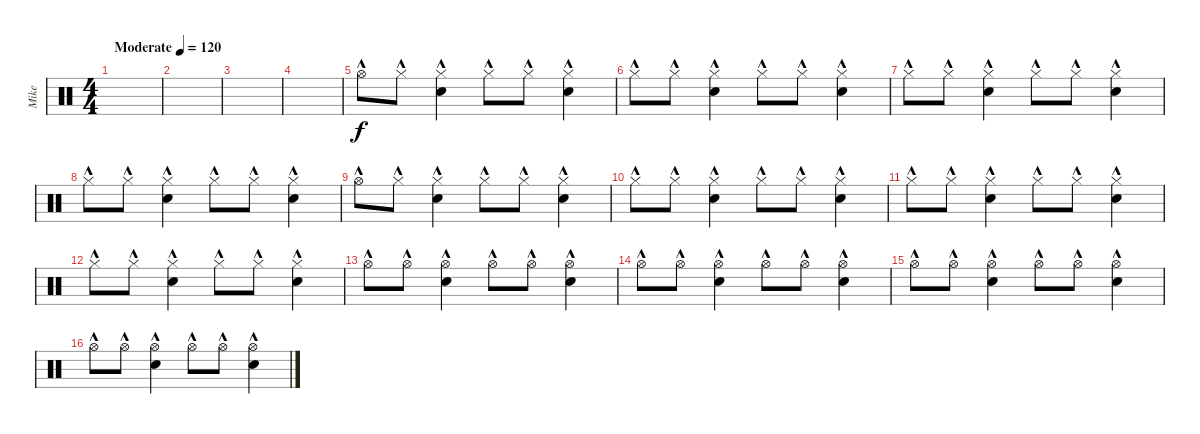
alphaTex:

\track ("Mike" "Mike") {instrument percussion}
\staff {score}
\articulation defaults
\ts (4 4)
\tempo (120 "Moderate")
\clef neutral
\ks c
|
|
|
|
"Hi-Hat (open)"{hac}.8 "Hi-Hat (closed)"{hac}.8 ("Hi-Hat (closed)"{hac} "Electric Snare (hit)"{hac}).4 "Hi-Hat (closed)"{hac}.8 "Hi-Hat (closed)"{hac}.8 ("Hi-Hat (closed)"{hac} "Electric Snare (hit)"{hac}).4 |
"Hi-Hat (closed)"{hac}.8 "Hi-Hat (closed)"{hac}.8 ("Hi-Hat (closed)"{hac} "Electric Snare (hit)"{hac}).4 "Hi-Hat (closed)"{hac}.8 "Hi-Hat (closed)"{hac}.8 ("Hi-Hat (closed)"{hac} "Electric Snare (hit)"{hac}).4 |
"Hi-Hat (closed)"{hac}.8 "Hi-Hat (closed)"{hac}.8 ("Hi-Hat (closed)"{hac} "Electric Snare (hit)"{hac}).4 "Hi-Hat (closed)"{hac}.8 "Hi-Hat (closed)"{hac}.8 ("Hi-Hat (closed)"{hac} "Electric Snare (hit)"{hac}).4 |
"Hi-Hat (closed)"{hac}.8 "Hi-Hat (closed)"{hac}.8 ("Hi-Hat (closed)"{hac} "Electric Snare (hit)"{hac}).4 "Hi-Hat (closed)"{hac}.8 "Hi-Hat (closed)"{hac}.8 ("Hi-Hat (closed)"{hac} "Electric Snare (hit)"{hac}).4 |
"Hi-Hat (open)"{hac}.8 "Hi-Hat (closed)"{hac}.8 ("Hi-Hat (closed)"{hac} "Electric Snare (hit)"{hac}).4 "Hi-Hat (closed)"{hac}.8 "Hi-Hat (closed)"{hac}.8 ("Hi-Hat (closed)"{hac} "Electric Snare (hit)"{hac}).4 |
"Hi-Hat (closed)"{hac}.8 "Hi-Hat (closed)"{hac}.8 ("Hi-Hat (closed)"{hac} "Electric Snare (hit)"{hac}).4 "Hi-Hat (closed)"{hac}.8 "Hi-Hat (closed)"{hac}.8 ("Hi-Hat (closed)"{hac} "Electric Snare (hit)"{hac}).4 |
"Hi-Hat (closed)"{hac}.8 "Hi-Hat (closed)"{hac}.8 ("Hi-Hat (closed)"{hac} "Electric Snare (hit)"{hac}).4 "Hi-Hat (closed)"{hac}.8 "Hi-Hat (closed)"{hac}.8 ("Hi-Hat (closed)"{hac} "Electric Snare (hit)"{hac}).4 |
"Hi-Hat (closed)"{hac}.8 "Hi-Hat (closed)"{hac}.8 ("Hi-Hat (closed)"{hac} "Electric Snare (hit)"{hac}).4 "Hi-Hat (closed)"{hac}.8 "Hi-Hat (closed)"{hac}.8 ("Hi-Hat (closed)"{hac} "Electric Snare (hit)"{hac}).4 |
"Hi-Hat (open)"{hac}.8 "Hi-Hat (open)"{hac}.8 ("Hi-Hat (open)"{hac} "Electric Snare (hit)"{hac}).4 "Hi-Hat (open)"{hac}.8 "Hi-Hat (open)"{hac}.8 ("Hi-Hat (open)"{hac} "Electric Snare (hit)"{hac}).4 |
"Hi-Hat (open)"{hac}.8 "Hi-Hat (open)"{hac}.8 ("Hi-Hat (open)"{hac} "Electric Snare (hit)"{hac}).4 "Hi-Hat (open)"{hac}.8 "Hi-Hat (open)"{hac}.8 ("Hi-Hat (open)"{hac} "Electric Snare (hit)"{hac}).4 |
"Hi-Hat (open)"{hac}.8 "Hi-Hat (open)"{hac}.8 ("Hi-Hat (open)"{hac} "Electric Snare (hit)"{hac}).4 "Hi-Hat (open)"{hac}.8 "Hi-Hat (open)"{hac}.8 ("Hi-Hat (open)"{hac} "Electric Snare (hit)"{hac}).4 |
"Hi-Hat (open)"{hac}.8 "Hi-Hat (open)"{hac}.8 ("Hi-Hat (open)"{hac} "Electric Snare (hit)"{hac}).4 "Hi-Hat (open)"{hac}.8 "Hi-Hat (open)"{hac}.8 ("Hi-Hat (open)"{hac} "Electric Snare (hit)"{hac}).4
